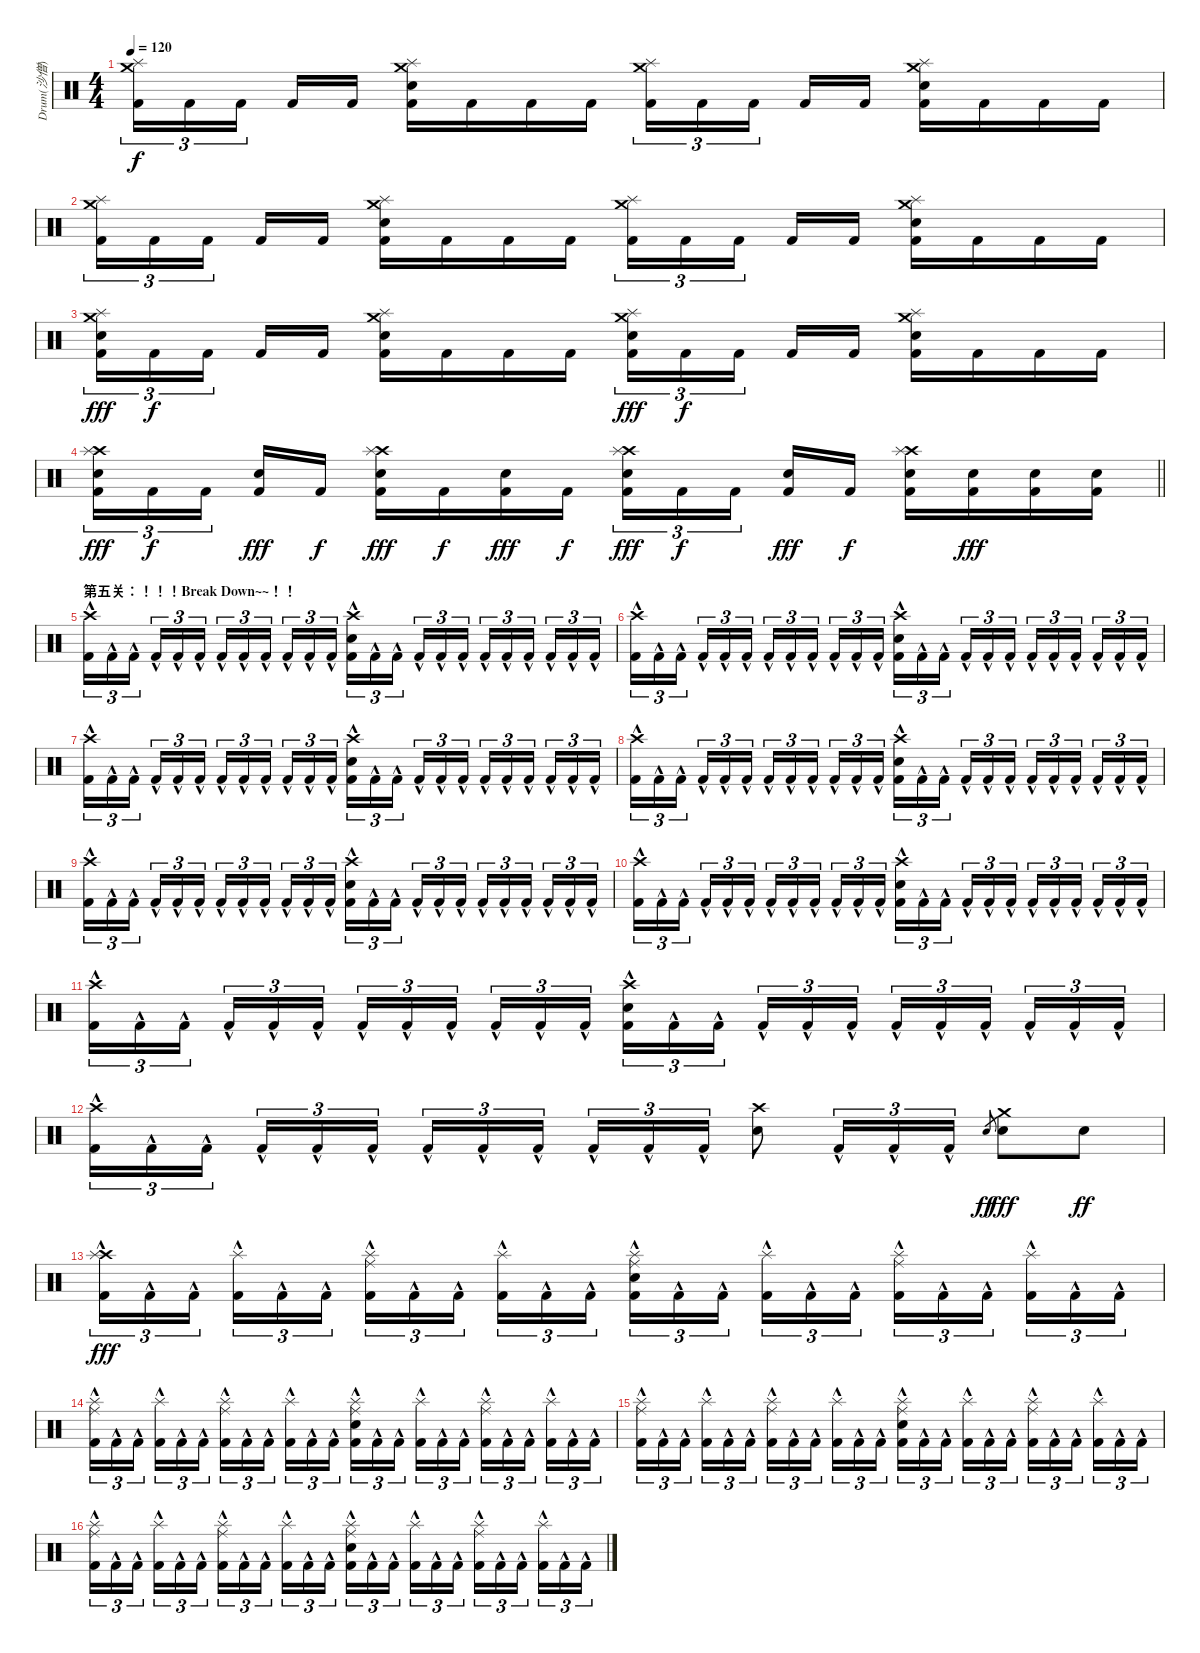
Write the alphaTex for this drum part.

\track ("Drum(沙僧)" "Drum(沙僧)") {instrument percussion}
\staff {score}
\articulation defaults
\ts (4 4)
\tempo 120
\clef neutral
\ks c
("Crash medium (hit)" "Splash (hit)" "Kick (hit) 2").16{tu (3 2) dy f} "Kick (hit) 2".16{tu (3 2)} "Kick (hit) 2".16{tu (3 2) beam splitsecondary} "Kick (hit) 2".16 "Kick (hit) 2".16 ("Crash medium (hit)" "Splash (hit)" "Snare (hit) 2" "Kick (hit) 2").16 "Kick (hit) 2".16 "Kick (hit) 2".16 "Kick (hit) 2".16 ("Crash medium (hit)" "Splash (hit)" "Kick (hit) 2").16{tu (3 2)} "Kick (hit) 2".16{tu (3 2)} "Kick (hit) 2".16{tu (3 2) beam splitsecondary} "Kick (hit) 2".16 "Kick (hit) 2".16 ("Crash medium (hit)" "Splash (hit)" "Snare (hit) 2" "Kick (hit) 2").16 "Kick (hit) 2".16 "Kick (hit) 2".16 "Kick (hit) 2".16 |
("Crash medium (hit)" "Splash (hit)" "Kick (hit) 2").16{tu (3 2)} "Kick (hit) 2".16{tu (3 2)} "Kick (hit) 2".16{tu (3 2) beam splitsecondary} "Kick (hit) 2".16 "Kick (hit) 2".16 ("Crash medium (hit)" "Splash (hit)" "Snare (hit) 2" "Kick (hit) 2").16 "Kick (hit) 2".16 "Kick (hit) 2".16 "Kick (hit) 2".16 ("Crash medium (hit)" "Splash (hit)" "Kick (hit) 2").16{tu (3 2)} "Kick (hit) 2".16{tu (3 2)} "Kick (hit) 2".16{tu (3 2) beam splitsecondary} "Kick (hit) 2".16 "Kick (hit) 2".16 ("Crash medium (hit)" "Splash (hit)" "Snare (hit) 2" "Kick (hit) 2").16 "Kick (hit) 2".16 "Kick (hit) 2".16 "Kick (hit) 2".16 |
("Crash medium (hit)" "Splash (hit)" "Snare (hit) 2" "Kick (hit) 2").16{tu (3 2) dy fff} "Kick (hit) 2".16{tu (3 2) dy f} "Kick (hit) 2".16{tu (3 2) beam splitsecondary} "Kick (hit) 2".16 "Kick (hit) 2".16 ("Crash medium (hit)" "Splash (hit)" "Snare (hit) 2" "Kick (hit) 2").16 "Kick (hit) 2".16 "Kick (hit) 2".16 "Kick (hit) 2".16 ("Crash medium (hit)" "Splash (hit)" "Snare (hit) 2" "Kick (hit) 2").16{tu (3 2) dy fff} "Kick (hit) 2".16{tu (3 2) dy f} "Kick (hit) 2".16{tu (3 2) beam splitsecondary} "Kick (hit) 2".16 "Kick (hit) 2".16 ("Crash medium (hit)" "Splash (hit)" "Snare (hit) 2" "Kick (hit) 2").16 "Kick (hit) 2".16 "Kick (hit) 2".16 "Kick (hit) 2".16 |
\barLineRight lightlight
("Crash high (hit)" "Splash (hit)" "Snare (hit) 2" "Kick (hit) 2").16{tu (3 2) dy fff} "Kick (hit) 2".16{tu (3 2) dy f} "Kick (hit) 2".16{tu (3 2) beam splitsecondary} ("Snare (hit) 2" "Kick (hit) 2").16{dy fff} "Kick (hit) 2".16{dy f} ("Crash high (hit)" "Splash (hit)" "Snare (hit) 2" "Kick (hit) 2").16{dy fff} "Kick (hit) 2".16{dy f} ("Snare (hit) 2" "Kick (hit) 2").16{dy fff} "Kick (hit) 2".16{dy f} ("Crash high (hit)" "Splash (hit)" "Snare (hit) 2" "Kick (hit) 2").16{tu (3 2) dy fff} "Kick (hit) 2".16{tu (3 2) dy f} "Kick (hit) 2".16{tu (3 2) beam splitsecondary} ("Snare (hit) 2" "Kick (hit) 2").16{dy fff} "Kick (hit) 2".16{dy f} ("Crash high (hit)" "Splash (hit)" "Snare (hit) 2" "Kick (hit) 2").16 ("Snare (hit) 2" "Kick (hit) 2").16{dy fff} ("Snare (hit) 2" "Kick (hit) 2").16 ("Snare (hit) 2" "Kick (hit) 2").16 |
\section ("" "第五关：！！！Break Down~~！！")
("Crash high (hit)" "Kick (hit) 2"{hac}).16{tu (3 2) volume 16 balance 8} "Kick (hit) 2"{hac}.16{tu (3 2)} "Kick (hit) 2"{hac}.16{tu (3 2) beam splitsecondary} "Kick (hit) 2"{hac}.16{tu (3 2)} "Kick (hit) 2"{hac}.16{tu (3 2)} "Kick (hit) 2"{hac}.16{tu (3 2)} "Kick (hit) 2"{hac}.16{tu (3 2)} "Kick (hit) 2"{hac}.16{tu (3 2)} "Kick (hit) 2"{hac}.16{tu (3 2) beam splitsecondary} "Kick (hit) 2"{hac}.16{tu (3 2)} "Kick (hit) 2"{hac}.16{tu (3 2)} "Kick (hit) 2"{hac}.16{tu (3 2)} ("Crash high (hit)" "Snare (hit) 2" "Kick (hit) 2"{hac}).16{tu (3 2)} "Kick (hit) 2"{hac}.16{tu (3 2)} "Kick (hit) 2"{hac}.16{tu (3 2) beam splitsecondary} "Kick (hit) 2"{hac}.16{tu (3 2)} "Kick (hit) 2"{hac}.16{tu (3 2)} "Kick (hit) 2"{hac}.16{tu (3 2)} "Kick (hit) 2"{hac}.16{tu (3 2)} "Kick (hit) 2"{hac}.16{tu (3 2)} "Kick (hit) 2"{hac}.16{tu (3 2) beam splitsecondary} "Kick (hit) 2"{hac}.16{tu (3 2)} "Kick (hit) 2"{hac}.16{tu (3 2)} "Kick (hit) 2"{hac}.16{tu (3 2)} |
("Crash high (hit)" "Kick (hit) 2"{hac}).16{tu (3 2)} "Kick (hit) 2"{hac}.16{tu (3 2)} "Kick (hit) 2"{hac}.16{tu (3 2) beam splitsecondary} "Kick (hit) 2"{hac}.16{tu (3 2)} "Kick (hit) 2"{hac}.16{tu (3 2)} "Kick (hit) 2"{hac}.16{tu (3 2)} "Kick (hit) 2"{hac}.16{tu (3 2)} "Kick (hit) 2"{hac}.16{tu (3 2)} "Kick (hit) 2"{hac}.16{tu (3 2) beam splitsecondary} "Kick (hit) 2"{hac}.16{tu (3 2)} "Kick (hit) 2"{hac}.16{tu (3 2)} "Kick (hit) 2"{hac}.16{tu (3 2)} ("Crash high (hit)" "Snare (hit) 2" "Kick (hit) 2"{hac}).16{tu (3 2)} "Kick (hit) 2"{hac}.16{tu (3 2)} "Kick (hit) 2"{hac}.16{tu (3 2) beam splitsecondary} "Kick (hit) 2"{hac}.16{tu (3 2)} "Kick (hit) 2"{hac}.16{tu (3 2)} "Kick (hit) 2"{hac}.16{tu (3 2)} "Kick (hit) 2"{hac}.16{tu (3 2)} "Kick (hit) 2"{hac}.16{tu (3 2)} "Kick (hit) 2"{hac}.16{tu (3 2) beam splitsecondary} "Kick (hit) 2"{hac}.16{tu (3 2)} "Kick (hit) 2"{hac}.16{tu (3 2)} "Kick (hit) 2"{hac}.16{tu (3 2)} |
("Crash high (hit)" "Kick (hit) 2"{hac}).16{tu (3 2)} "Kick (hit) 2"{hac}.16{tu (3 2)} "Kick (hit) 2"{hac}.16{tu (3 2) beam splitsecondary} "Kick (hit) 2"{hac}.16{tu (3 2)} "Kick (hit) 2"{hac}.16{tu (3 2)} "Kick (hit) 2"{hac}.16{tu (3 2)} "Kick (hit) 2"{hac}.16{tu (3 2)} "Kick (hit) 2"{hac}.16{tu (3 2)} "Kick (hit) 2"{hac}.16{tu (3 2) beam splitsecondary} "Kick (hit) 2"{hac}.16{tu (3 2)} "Kick (hit) 2"{hac}.16{tu (3 2)} "Kick (hit) 2"{hac}.16{tu (3 2)} ("Crash high (hit)" "Snare (hit) 2" "Kick (hit) 2"{hac}).16{tu (3 2)} "Kick (hit) 2"{hac}.16{tu (3 2)} "Kick (hit) 2"{hac}.16{tu (3 2) beam splitsecondary} "Kick (hit) 2"{hac}.16{tu (3 2)} "Kick (hit) 2"{hac}.16{tu (3 2)} "Kick (hit) 2"{hac}.16{tu (3 2)} "Kick (hit) 2"{hac}.16{tu (3 2)} "Kick (hit) 2"{hac}.16{tu (3 2)} "Kick (hit) 2"{hac}.16{tu (3 2) beam splitsecondary} "Kick (hit) 2"{hac}.16{tu (3 2)} "Kick (hit) 2"{hac}.16{tu (3 2)} "Kick (hit) 2"{hac}.16{tu (3 2)} |
("Crash high (hit)" "Kick (hit) 2"{hac}).16{tu (3 2)} "Kick (hit) 2"{hac}.16{tu (3 2)} "Kick (hit) 2"{hac}.16{tu (3 2) beam splitsecondary} "Kick (hit) 2"{hac}.16{tu (3 2)} "Kick (hit) 2"{hac}.16{tu (3 2)} "Kick (hit) 2"{hac}.16{tu (3 2)} "Kick (hit) 2"{hac}.16{tu (3 2)} "Kick (hit) 2"{hac}.16{tu (3 2)} "Kick (hit) 2"{hac}.16{tu (3 2) beam splitsecondary} "Kick (hit) 2"{hac}.16{tu (3 2)} "Kick (hit) 2"{hac}.16{tu (3 2)} "Kick (hit) 2"{hac}.16{tu (3 2)} ("Crash high (hit)" "Snare (hit) 2" "Kick (hit) 2"{hac}).16{tu (3 2)} "Kick (hit) 2"{hac}.16{tu (3 2)} "Kick (hit) 2"{hac}.16{tu (3 2) beam splitsecondary} "Kick (hit) 2"{hac}.16{tu (3 2)} "Kick (hit) 2"{hac}.16{tu (3 2)} "Kick (hit) 2"{hac}.16{tu (3 2)} "Kick (hit) 2"{hac}.16{tu (3 2)} "Kick (hit) 2"{hac}.16{tu (3 2)} "Kick (hit) 2"{hac}.16{tu (3 2) beam splitsecondary} "Kick (hit) 2"{hac}.16{tu (3 2)} "Kick (hit) 2"{hac}.16{tu (3 2)} "Kick (hit) 2"{hac}.16{tu (3 2)} |
("Crash high (hit)" "Kick (hit) 2"{hac}).16{tu (3 2)} "Kick (hit) 2"{hac}.16{tu (3 2)} "Kick (hit) 2"{hac}.16{tu (3 2) beam splitsecondary} "Kick (hit) 2"{hac}.16{tu (3 2)} "Kick (hit) 2"{hac}.16{tu (3 2)} "Kick (hit) 2"{hac}.16{tu (3 2)} "Kick (hit) 2"{hac}.16{tu (3 2)} "Kick (hit) 2"{hac}.16{tu (3 2)} "Kick (hit) 2"{hac}.16{tu (3 2) beam splitsecondary} "Kick (hit) 2"{hac}.16{tu (3 2)} "Kick (hit) 2"{hac}.16{tu (3 2)} "Kick (hit) 2"{hac}.16{tu (3 2)} ("Crash high (hit)" "Snare (hit) 2" "Kick (hit) 2"{hac}).16{tu (3 2)} "Kick (hit) 2"{hac}.16{tu (3 2)} "Kick (hit) 2"{hac}.16{tu (3 2) beam splitsecondary} "Kick (hit) 2"{hac}.16{tu (3 2)} "Kick (hit) 2"{hac}.16{tu (3 2)} "Kick (hit) 2"{hac}.16{tu (3 2)} "Kick (hit) 2"{hac}.16{tu (3 2)} "Kick (hit) 2"{hac}.16{tu (3 2)} "Kick (hit) 2"{hac}.16{tu (3 2) beam splitsecondary} "Kick (hit) 2"{hac}.16{tu (3 2)} "Kick (hit) 2"{hac}.16{tu (3 2)} "Kick (hit) 2"{hac}.16{tu (3 2)} |
("Crash high (hit)" "Kick (hit) 2"{hac}).16{tu (3 2)} "Kick (hit) 2"{hac}.16{tu (3 2)} "Kick (hit) 2"{hac}.16{tu (3 2) beam splitsecondary} "Kick (hit) 2"{hac}.16{tu (3 2)} "Kick (hit) 2"{hac}.16{tu (3 2)} "Kick (hit) 2"{hac}.16{tu (3 2)} "Kick (hit) 2"{hac}.16{tu (3 2)} "Kick (hit) 2"{hac}.16{tu (3 2)} "Kick (hit) 2"{hac}.16{tu (3 2) beam splitsecondary} "Kick (hit) 2"{hac}.16{tu (3 2)} "Kick (hit) 2"{hac}.16{tu (3 2)} "Kick (hit) 2"{hac}.16{tu (3 2)} ("Crash high (hit)" "Snare (hit) 2" "Kick (hit) 2"{hac}).16{tu (3 2)} "Kick (hit) 2"{hac}.16{tu (3 2)} "Kick (hit) 2"{hac}.16{tu (3 2) beam splitsecondary} "Kick (hit) 2"{hac}.16{tu (3 2)} "Kick (hit) 2"{hac}.16{tu (3 2)} "Kick (hit) 2"{hac}.16{tu (3 2)} "Kick (hit) 2"{hac}.16{tu (3 2)} "Kick (hit) 2"{hac}.16{tu (3 2)} "Kick (hit) 2"{hac}.16{tu (3 2) beam splitsecondary} "Kick (hit) 2"{hac}.16{tu (3 2)} "Kick (hit) 2"{hac}.16{tu (3 2)} "Kick (hit) 2"{hac}.16{tu (3 2)} |
("Crash high (hit)" "Kick (hit) 2"{hac}).16{tu (3 2)} "Kick (hit) 2"{hac}.16{tu (3 2)} "Kick (hit) 2"{hac}.16{tu (3 2) beam splitsecondary} "Kick (hit) 2"{hac}.16{tu (3 2)} "Kick (hit) 2"{hac}.16{tu (3 2)} "Kick (hit) 2"{hac}.16{tu (3 2)} "Kick (hit) 2"{hac}.16{tu (3 2)} "Kick (hit) 2"{hac}.16{tu (3 2)} "Kick (hit) 2"{hac}.16{tu (3 2) beam splitsecondary} "Kick (hit) 2"{hac}.16{tu (3 2)} "Kick (hit) 2"{hac}.16{tu (3 2)} "Kick (hit) 2"{hac}.16{tu (3 2)} ("Crash high (hit)" "Snare (hit) 2" "Kick (hit) 2"{hac}).16{tu (3 2)} "Kick (hit) 2"{hac}.16{tu (3 2)} "Kick (hit) 2"{hac}.16{tu (3 2) beam splitsecondary} "Kick (hit) 2"{hac}.16{tu (3 2)} "Kick (hit) 2"{hac}.16{tu (3 2)} "Kick (hit) 2"{hac}.16{tu (3 2)} "Kick (hit) 2"{hac}.16{tu (3 2)} "Kick (hit) 2"{hac}.16{tu (3 2)} "Kick (hit) 2"{hac}.16{tu (3 2) beam splitsecondary} "Kick (hit) 2"{hac}.16{tu (3 2)} "Kick (hit) 2"{hac}.16{tu (3 2)} "Kick (hit) 2"{hac}.16{tu (3 2)} |
("Crash high (hit)" "Kick (hit) 2"{hac}).16{tu (3 2)} "Kick (hit) 2"{hac}.16{tu (3 2)} "Kick (hit) 2"{hac}.16{tu (3 2) beam splitsecondary} "Kick (hit) 2"{hac}.16{tu (3 2)} "Kick (hit) 2"{hac}.16{tu (3 2)} "Kick (hit) 2"{hac}.16{tu (3 2)} "Kick (hit) 2"{hac}.16{tu (3 2)} "Kick (hit) 2"{hac}.16{tu (3 2)} "Kick (hit) 2"{hac}.16{tu (3 2) beam splitsecondary} "Kick (hit) 2"{hac}.16{tu (3 2)} "Kick (hit) 2"{hac}.16{tu (3 2)} "Kick (hit) 2"{hac}.16{tu (3 2)} ("Crash high (hit)" "Snare (hit) 2").8 "Kick (hit) 2"{hac}.16{tu (3 2)} "Kick (hit) 2"{hac}.16{tu (3 2)} "Kick (hit) 2"{hac}.16{tu (3 2)} "Snare (hit) 2".8{gr dy ff} ("Crash medium (hit)" "Snare (hit) 2").8{dy fff} "Snare (hit) 2".8{dy ff} |
("Crash high (hit)" "Splash (hit)" "Kick (hit) 2"{hac}).16{tu (3 2) dy fff} "Kick (hit) 2"{hac}.16{tu (3 2)} "Kick (hit) 2"{hac}.16{tu (3 2) beam splitsecondary} ("Splash (hit)" "Kick (hit) 2"{hac}).16{tu (3 2)} "Kick (hit) 2"{hac}.16{tu (3 2)} "Kick (hit) 2"{hac}.16{tu (3 2)} ("Ride (middle)"{hac} "Splash (hit)" "Kick (hit) 2"{hac}).16{tu (3 2)} "Kick (hit) 2"{hac}.16{tu (3 2)} "Kick (hit) 2"{hac}.16{tu (3 2) beam splitsecondary} ("Splash (hit)" "Kick (hit) 2"{hac}).16{tu (3 2)} "Kick (hit) 2"{hac}.16{tu (3 2)} "Kick (hit) 2"{hac}.16{tu (3 2)} ("Ride (middle)"{hac} "Splash (hit)" "Snare (hit) 2" "Kick (hit) 2"{hac}).16{tu (3 2)} "Kick (hit) 2"{hac}.16{tu (3 2)} "Kick (hit) 2"{hac}.16{tu (3 2) beam splitsecondary} ("Splash (hit)" "Kick (hit) 2"{hac}).16{tu (3 2)} "Kick (hit) 2"{hac}.16{tu (3 2)} "Kick (hit) 2"{hac}.16{tu (3 2)} ("Ride (middle)"{hac} "Splash (hit)" "Kick (hit) 2"{hac}).16{tu (3 2)} "Kick (hit) 2"{hac}.16{tu (3 2)} "Kick (hit) 2"{hac}.16{tu (3 2) beam splitsecondary} ("Splash (hit)" "Kick (hit) 2"{hac}).16{tu (3 2)} "Kick (hit) 2"{hac}.16{tu (3 2)} "Kick (hit) 2"{hac}.16{tu (3 2)} |
("Ride (middle)"{hac} "Splash (hit)" "Kick (hit) 2"{hac}).16{tu (3 2)} "Kick (hit) 2"{hac}.16{tu (3 2)} "Kick (hit) 2"{hac}.16{tu (3 2) beam splitsecondary} ("Splash (hit)" "Kick (hit) 2"{hac}).16{tu (3 2)} "Kick (hit) 2"{hac}.16{tu (3 2)} "Kick (hit) 2"{hac}.16{tu (3 2)} ("Ride (middle)"{hac} "Splash (hit)" "Kick (hit) 2"{hac}).16{tu (3 2)} "Kick (hit) 2"{hac}.16{tu (3 2)} "Kick (hit) 2"{hac}.16{tu (3 2) beam splitsecondary} ("Splash (hit)" "Kick (hit) 2"{hac}).16{tu (3 2)} "Kick (hit) 2"{hac}.16{tu (3 2)} "Kick (hit) 2"{hac}.16{tu (3 2)} ("Ride (middle)"{hac} "Splash (hit)" "Snare (hit) 2" "Kick (hit) 2"{hac}).16{tu (3 2)} "Kick (hit) 2"{hac}.16{tu (3 2)} "Kick (hit) 2"{hac}.16{tu (3 2) beam splitsecondary} ("Splash (hit)" "Kick (hit) 2"{hac}).16{tu (3 2)} "Kick (hit) 2"{hac}.16{tu (3 2)} "Kick (hit) 2"{hac}.16{tu (3 2)} ("Ride (middle)"{hac} "Splash (hit)" "Kick (hit) 2"{hac}).16{tu (3 2)} "Kick (hit) 2"{hac}.16{tu (3 2)} "Kick (hit) 2"{hac}.16{tu (3 2) beam splitsecondary} ("Splash (hit)" "Kick (hit) 2"{hac}).16{tu (3 2)} "Kick (hit) 2"{hac}.16{tu (3 2)} "Kick (hit) 2"{hac}.16{tu (3 2)} |
("Ride (middle)"{hac} "Splash (hit)" "Kick (hit) 2"{hac}).16{tu (3 2)} "Kick (hit) 2"{hac}.16{tu (3 2)} "Kick (hit) 2"{hac}.16{tu (3 2) beam splitsecondary} ("Splash (hit)" "Kick (hit) 2"{hac}).16{tu (3 2)} "Kick (hit) 2"{hac}.16{tu (3 2)} "Kick (hit) 2"{hac}.16{tu (3 2)} ("Ride (middle)"{hac} "Splash (hit)" "Kick (hit) 2"{hac}).16{tu (3 2)} "Kick (hit) 2"{hac}.16{tu (3 2)} "Kick (hit) 2"{hac}.16{tu (3 2) beam splitsecondary} ("Splash (hit)" "Kick (hit) 2"{hac}).16{tu (3 2)} "Kick (hit) 2"{hac}.16{tu (3 2)} "Kick (hit) 2"{hac}.16{tu (3 2)} ("Ride (middle)"{hac} "Splash (hit)" "Snare (hit) 2" "Kick (hit) 2"{hac}).16{tu (3 2)} "Kick (hit) 2"{hac}.16{tu (3 2)} "Kick (hit) 2"{hac}.16{tu (3 2) beam splitsecondary} ("Splash (hit)" "Kick (hit) 2"{hac}).16{tu (3 2)} "Kick (hit) 2"{hac}.16{tu (3 2)} "Kick (hit) 2"{hac}.16{tu (3 2)} ("Ride (middle)"{hac} "Splash (hit)" "Kick (hit) 2"{hac}).16{tu (3 2)} "Kick (hit) 2"{hac}.16{tu (3 2)} "Kick (hit) 2"{hac}.16{tu (3 2) beam splitsecondary} ("Splash (hit)" "Kick (hit) 2"{hac}).16{tu (3 2)} "Kick (hit) 2"{hac}.16{tu (3 2)} "Kick (hit) 2"{hac}.16{tu (3 2)} |
("Ride (middle)"{hac} "Splash (hit)" "Kick (hit) 2"{hac}).16{tu (3 2)} "Kick (hit) 2"{hac}.16{tu (3 2)} "Kick (hit) 2"{hac}.16{tu (3 2) beam splitsecondary} ("Splash (hit)" "Kick (hit) 2"{hac}).16{tu (3 2)} "Kick (hit) 2"{hac}.16{tu (3 2)} "Kick (hit) 2"{hac}.16{tu (3 2)} ("Ride (middle)"{hac} "Splash (hit)" "Kick (hit) 2"{hac}).16{tu (3 2)} "Kick (hit) 2"{hac}.16{tu (3 2)} "Kick (hit) 2"{hac}.16{tu (3 2) beam splitsecondary} ("Splash (hit)" "Kick (hit) 2"{hac}).16{tu (3 2)} "Kick (hit) 2"{hac}.16{tu (3 2)} "Kick (hit) 2"{hac}.16{tu (3 2)} ("Ride (middle)"{hac} "Splash (hit)" "Snare (hit) 2" "Kick (hit) 2"{hac}).16{tu (3 2)} "Kick (hit) 2"{hac}.16{tu (3 2)} "Kick (hit) 2"{hac}.16{tu (3 2) beam splitsecondary} ("Splash (hit)" "Kick (hit) 2"{hac}).16{tu (3 2)} "Kick (hit) 2"{hac}.16{tu (3 2)} "Kick (hit) 2"{hac}.16{tu (3 2)} ("Ride (middle)"{hac} "Splash (hit)" "Kick (hit) 2"{hac}).16{tu (3 2)} "Kick (hit) 2"{hac}.16{tu (3 2)} "Kick (hit) 2"{hac}.16{tu (3 2) beam splitsecondary} ("Splash (hit)" "Kick (hit) 2"{hac}).16{tu (3 2)} "Kick (hit) 2"{hac}.16{tu (3 2)} "Kick (hit) 2"{hac}.16{tu (3 2)}
